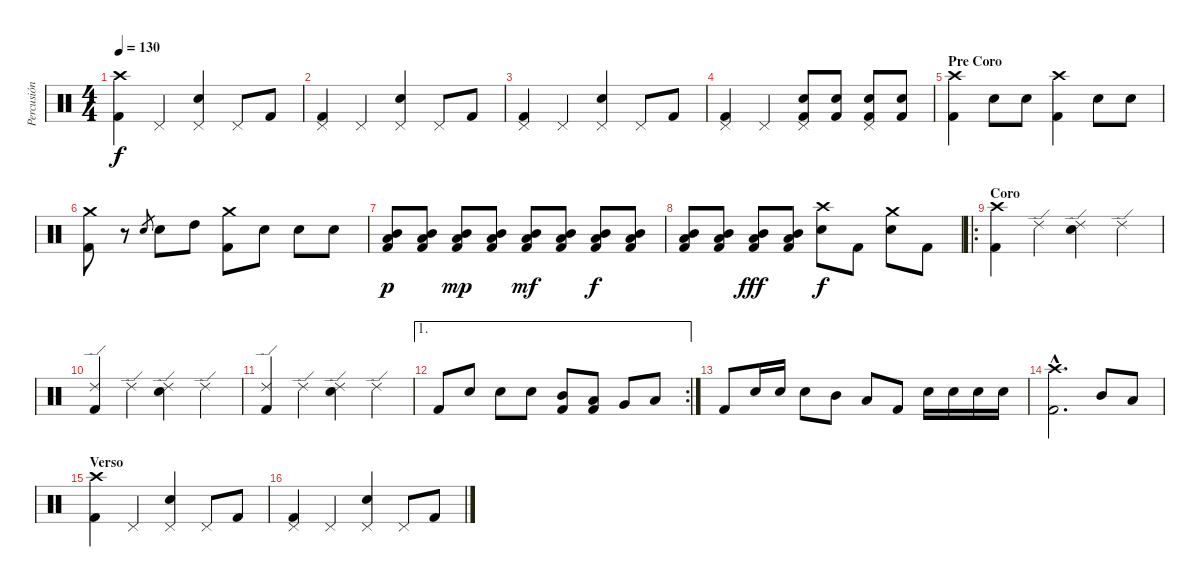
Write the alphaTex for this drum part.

\track ("Percusión" "Percusión") {instrument percussion}
\staff {score}
\articulation defaults
\ts (4 4)
\tempo 130
\clef neutral
\ks c
("Crash high (hit)" "Kick (hit) 2").4{dy f} "Pedal Hi-Hat (hit)".4 ("Pedal Hi-Hat (hit)" "Electric Snare (hit)").4 "Pedal Hi-Hat (hit)".8 "Kick (hit) 2".8 |
("Pedal Hi-Hat (hit)" "Kick (hit) 2").4 "Pedal Hi-Hat (hit)".4 ("Pedal Hi-Hat (hit)" "Electric Snare (hit)").4 "Pedal Hi-Hat (hit)".8 "Kick (hit) 2".8 |
("Pedal Hi-Hat (hit)" "Kick (hit) 2").4 "Pedal Hi-Hat (hit)".4 ("Pedal Hi-Hat (hit)" "Electric Snare (hit)").4 "Pedal Hi-Hat (hit)".8 "Kick (hit) 2".8 |
("Pedal Hi-Hat (hit)" "Kick (hit) 2").4 "Pedal Hi-Hat (hit)".4 ("Pedal Hi-Hat (hit)" "Electric Snare (hit)" "Kick (hit) 2").8 ("Electric Snare (hit)" "Kick (hit) 2").8 ("Pedal Hi-Hat (hit)" "Electric Snare (hit)" "Kick (hit) 2").8 ("Electric Snare (hit)" "Kick (hit) 2").8 |
\section ("" "Pre Coro")
("Crash high (hit)" "Kick (hit) 2").4 "Electric Snare (hit)".8 "Electric Snare (hit)".8 ("Crash high (hit)" "Kick (hit) 2").4 "Electric Snare (hit)".8 "Electric Snare (hit)".8 |
("Crash medium (hit)" "Kick (hit) 2").8 r.8 "Electric Snare (hit)".8{gr} "Electric Snare (hit)".8 "High Tom (hit)".8 ("Crash medium (hit)" "Kick (hit) 2").8 "Electric Snare (hit)".8 "Electric Snare (hit)".8 "Electric Snare (hit)".8 |
("Mid Tom (hit)" "Low Tom (hit)" "Kick (hit) 2").8{dy p} ("Mid Tom (hit)" "Low Tom (hit)" "Kick (hit) 2").8 ("Mid Tom (hit)" "Low Tom (hit)" "Kick (hit) 2").8{dy mp} ("Mid Tom (hit)" "Low Tom (hit)" "Kick (hit) 2").8 ("Mid Tom (hit)" "Low Tom (hit)" "Kick (hit) 2").8{dy mf} ("Mid Tom (hit)" "Low Tom (hit)" "Kick (hit) 2").8 ("Mid Tom (hit)" "Low Tom (hit)" "Kick (hit) 2").8{dy f} ("Mid Tom (hit)" "Low Tom (hit)" "Kick (hit) 2").8 |
("Mid Tom (hit)" "Low Tom (hit)" "Kick (hit) 2").8 ("Mid Tom (hit)" "Low Tom (hit)" "Kick (hit) 2").8 ("Mid Tom (hit)" "Low Tom (hit)" "Kick (hit) 2").8{dy fff} ("Mid Tom (hit)" "Low Tom (hit)" "Kick (hit) 2").8 ("Crash high (hit)" "Electric Snare (hit)").8{dy f} "Kick (hit) 2".8 ("Crash medium (hit)" "Electric Snare (hit)").8 "Kick (hit) 2".8 |
\ro
\section ("" "Coro")
("Crash high (hit)" "Kick (hit) 2").4 "Ride (edge) 2".4 ("Ride (edge) 2" "Electric Snare (hit)").4 "Ride (edge) 2".4 |
("Ride (edge) 2" "Kick (hit) 2").4 "Ride (edge) 2".4 ("Ride (edge) 2" "Electric Snare (hit)").4 "Ride (edge) 2".4 |
("Ride (edge) 2" "Kick (hit) 2").4 "Ride (edge) 2".4 ("Ride (edge) 2" "Electric Snare (hit)").4 "Ride (edge) 2".4 |
\ae 1
\rc 2 "Kick (hit) 2".8 "Electric Snare (hit)".8 "Electric Snare (hit)".8 "Electric Snare (hit)".8
("Mid Tom (hit)" "Kick (hit) 2").8 ("Low Tom (hit)" "Kick (hit) 2").8 "Very Low Tom (hit)".8 "Low Floor Tom (hit)".8 |
"Kick (hit) 2".8 "Electric Snare (hit)".16 "Electric Snare (hit)".16 "Electric Snare (hit)".8 "Mid Tom (hit)".8 "Low Tom (hit)".8 "Kick (hit) 2".8 "Electric Snare (hit)".16 "Electric Snare (hit)".16 "Electric Snare (hit)".16 "Electric Snare (hit)".16 |
("Crash high (hit)"{hac} "Kick (hit) 2"{hac}).2{d} "Mid Tom (hit)".8 "Low Tom (hit)".8 |
\section ("" "Verso")
("Crash high (hit)" "Kick (hit) 2").4 "Pedal Hi-Hat (hit)".4 ("Pedal Hi-Hat (hit)" "Electric Snare (hit)").4 "Pedal Hi-Hat (hit)".8 "Kick (hit) 2".8 |
("Pedal Hi-Hat (hit)" "Kick (hit) 2").4 "Pedal Hi-Hat (hit)".4 ("Pedal Hi-Hat (hit)" "Electric Snare (hit)").4 "Pedal Hi-Hat (hit)".8 "Kick (hit) 2".8
